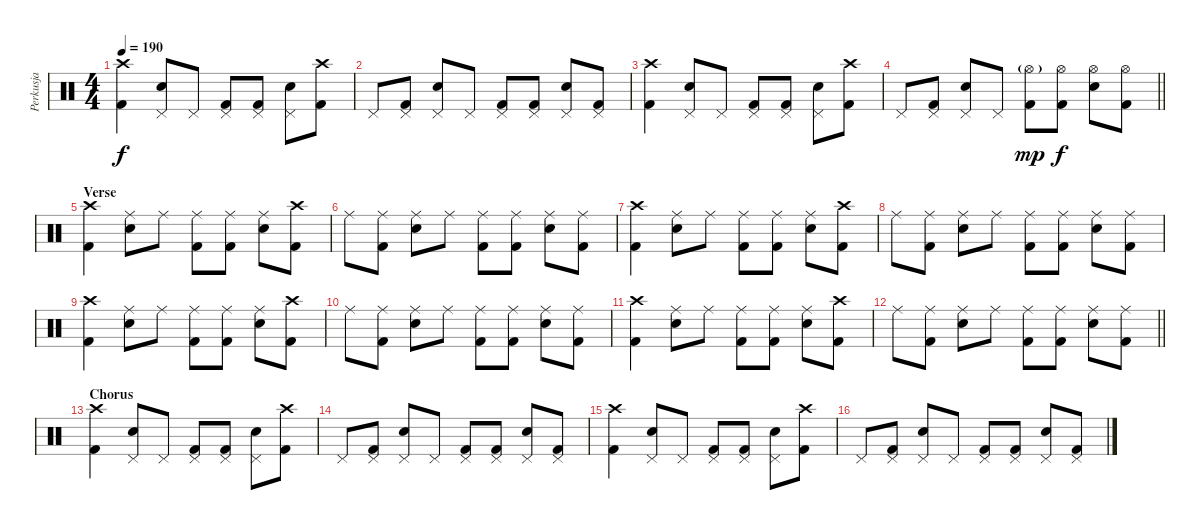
\track ("Perkusja" "Perkusja") {instrument percussion}
\staff {score}
\articulation defaults
\ts (4 4)
\tempo 190
\clef neutral
\ks c
("Crash high (hit)" "Kick (hit) 2").4{dy f} ("Pedal Hi-Hat (hit)" "Electric Snare (hit)").8 "Pedal Hi-Hat (hit)".8 ("Pedal Hi-Hat (hit)" "Kick (hit) 2").8 ("Pedal Hi-Hat (hit)" "Kick (hit) 2").8 ("Pedal Hi-Hat (hit)" "Electric Snare (hit)").8 ("Crash high (hit)" "Kick (hit) 2").8 |
"Pedal Hi-Hat (hit)".8 ("Pedal Hi-Hat (hit)" "Kick (hit) 2").8 ("Pedal Hi-Hat (hit)" "Electric Snare (hit)").8 "Pedal Hi-Hat (hit)".8 ("Pedal Hi-Hat (hit)" "Kick (hit) 2").8 ("Pedal Hi-Hat (hit)" "Kick (hit) 2").8 ("Pedal Hi-Hat (hit)" "Electric Snare (hit)").8 ("Pedal Hi-Hat (hit)" "Kick (hit) 2").8 |
("Crash high (hit)" "Kick (hit) 2").4 ("Pedal Hi-Hat (hit)" "Electric Snare (hit)").8 "Pedal Hi-Hat (hit)".8 ("Pedal Hi-Hat (hit)" "Kick (hit) 2").8 ("Pedal Hi-Hat (hit)" "Kick (hit) 2").8 ("Pedal Hi-Hat (hit)" "Electric Snare (hit)").8 ("Crash high (hit)" "Kick (hit) 2").8 |
\barLineRight lightlight "Pedal Hi-Hat (hit)".8
("Pedal Hi-Hat (hit)" "Kick (hit) 2").8 ("Pedal Hi-Hat (hit)" "Electric Snare (hit)").8 "Pedal Hi-Hat (hit)".8 ("Hi-Hat (open)"{g} "Kick (hit) 2").8{dy mp} ("Hi-Hat (open)" "Kick (hit) 2").8{dy f} ("Hi-Hat (open)" "Electric Snare (hit)").8 ("Hi-Hat (open)" "Kick (hit) 2").8 |
\section ("" "Verse")
("Crash high (hit)" "Kick (hit) 2").4 ("Ride (middle)" "Electric Snare (hit)").8 "Ride (middle)".8 ("Ride (middle)" "Kick (hit) 2").8 ("Ride (middle)" "Kick (hit) 2").8 ("Ride (middle)" "Electric Snare (hit)").8 ("Crash high (hit)" "Kick (hit) 2").8 |
"Ride (middle)".8 ("Ride (middle)" "Kick (hit) 2").8 ("Ride (middle)" "Electric Snare (hit)").8 "Ride (middle)".8 ("Ride (middle)" "Kick (hit) 2").8 ("Ride (middle)" "Kick (hit) 2").8 ("Ride (middle)" "Electric Snare (hit)").8 ("Ride (middle)" "Kick (hit) 2").8 |
("Crash high (hit)" "Kick (hit) 2").4 ("Ride (middle)" "Electric Snare (hit)").8 "Ride (middle)".8 ("Ride (middle)" "Kick (hit) 2").8 ("Ride (middle)" "Kick (hit) 2").8 ("Ride (middle)" "Electric Snare (hit)").8 ("Crash high (hit)" "Kick (hit) 2").8 |
"Ride (middle)".8 ("Ride (middle)" "Kick (hit) 2").8 ("Ride (middle)" "Electric Snare (hit)").8 "Ride (middle)".8 ("Ride (middle)" "Kick (hit) 2").8 ("Ride (middle)" "Kick (hit) 2").8 ("Ride (middle)" "Electric Snare (hit)").8 ("Ride (middle)" "Kick (hit) 2").8 |
("Crash high (hit)" "Kick (hit) 2").4 ("Ride (middle)" "Electric Snare (hit)").8 "Ride (middle)".8 ("Ride (middle)" "Kick (hit) 2").8 ("Ride (middle)" "Kick (hit) 2").8 ("Ride (middle)" "Electric Snare (hit)").8 ("Crash high (hit)" "Kick (hit) 2").8 |
"Ride (middle)".8 ("Ride (middle)" "Kick (hit) 2").8 ("Ride (middle)" "Electric Snare (hit)").8 "Ride (middle)".8 ("Ride (middle)" "Kick (hit) 2").8 ("Ride (middle)" "Kick (hit) 2").8 ("Ride (middle)" "Electric Snare (hit)").8 ("Ride (middle)" "Kick (hit) 2").8 |
("Crash high (hit)" "Kick (hit) 2").4 ("Ride (middle)" "Electric Snare (hit)").8 "Ride (middle)".8 ("Ride (middle)" "Kick (hit) 2").8 ("Ride (middle)" "Kick (hit) 2").8 ("Ride (middle)" "Electric Snare (hit)").8 ("Crash high (hit)" "Kick (hit) 2").8 |
\barLineRight lightlight "Ride (middle)".8
("Ride (middle)" "Kick (hit) 2").8 ("Ride (middle)" "Electric Snare (hit)").8 "Ride (middle)".8 ("Ride (middle)" "Kick (hit) 2").8 ("Ride (middle)" "Kick (hit) 2").8 ("Ride (middle)" "Electric Snare (hit)").8 ("Ride (middle)" "Kick (hit) 2").8 |
\section ("" "Chorus")
("Crash high (hit)" "Kick (hit) 2").4 ("Pedal Hi-Hat (hit)" "Electric Snare (hit)").8 "Pedal Hi-Hat (hit)".8 ("Pedal Hi-Hat (hit)" "Kick (hit) 2").8 ("Pedal Hi-Hat (hit)" "Kick (hit) 2").8 ("Pedal Hi-Hat (hit)" "Electric Snare (hit)").8 ("Crash high (hit)" "Kick (hit) 2").8 |
"Pedal Hi-Hat (hit)".8 ("Pedal Hi-Hat (hit)" "Kick (hit) 2").8 ("Pedal Hi-Hat (hit)" "Electric Snare (hit)").8 "Pedal Hi-Hat (hit)".8 ("Pedal Hi-Hat (hit)" "Kick (hit) 2").8 ("Pedal Hi-Hat (hit)" "Kick (hit) 2").8 ("Pedal Hi-Hat (hit)" "Electric Snare (hit)").8 ("Pedal Hi-Hat (hit)" "Kick (hit) 2").8 |
("Crash high (hit)" "Kick (hit) 2").4 ("Pedal Hi-Hat (hit)" "Electric Snare (hit)").8 "Pedal Hi-Hat (hit)".8 ("Pedal Hi-Hat (hit)" "Kick (hit) 2").8 ("Pedal Hi-Hat (hit)" "Kick (hit) 2").8 ("Pedal Hi-Hat (hit)" "Electric Snare (hit)").8 ("Crash high (hit)" "Kick (hit) 2").8 |
"Pedal Hi-Hat (hit)".8 ("Pedal Hi-Hat (hit)" "Kick (hit) 2").8 ("Pedal Hi-Hat (hit)" "Electric Snare (hit)").8 "Pedal Hi-Hat (hit)".8 ("Pedal Hi-Hat (hit)" "Kick (hit) 2").8 ("Pedal Hi-Hat (hit)" "Kick (hit) 2").8 ("Pedal Hi-Hat (hit)" "Electric Snare (hit)").8 ("Pedal Hi-Hat (hit)" "Kick (hit) 2").8
